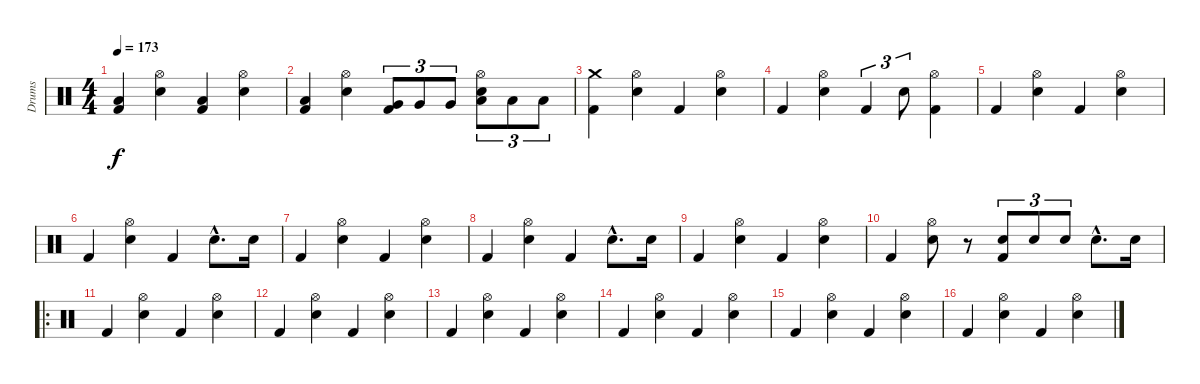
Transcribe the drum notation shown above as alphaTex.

\track ("Drums" "Drums") {instrument percussion}
\staff {score}
\articulation defaults
\ts (4 4)
\tempo 173
\clef neutral
\ks c
("Kick (hit) 2" "Low Floor Tom (hit)").4{dy f} ("Electric Snare (hit)" "Hi-Hat (open)").4 ("Kick (hit) 2" "Low Floor Tom (hit)").4 ("Electric Snare (hit)" "Hi-Hat (open)").4 |
("Kick (hit) 2" "Low Floor Tom (hit)").4 ("Electric Snare (hit)" "Hi-Hat (open)").4 ("Kick (hit) 2" "Very Low Tom (hit)").8{tu (3 2)} "Very Low Tom (hit)".8{tu (3 2)} "Very Low Tom (hit)".8{tu (3 2)} ("Low Floor Tom (hit)" "Electric Snare (hit)" "Hi-Hat (open)").8{tu (3 2)} "Low Floor Tom (hit)".8{tu (3 2)} "Low Floor Tom (hit)".8{tu (3 2)} |
("Kick (hit) 2" "Crash medium (hit)").4 ("Electric Snare (hit)" "Hi-Hat (open)").4 "Kick (hit) 2".4 ("Electric Snare (hit)" "Hi-Hat (open)").4 |
"Kick (hit) 2".4 ("Hi-Hat (open)" "Electric Snare (hit)").4 "Kick (hit) 2".4{tu (3 2)} "Electric Snare (hit)".8{tu (3 2)} ("Hi-Hat (open)" "Kick (hit) 2").4 |
"Kick (hit) 2".4 ("Electric Snare (hit)" "Hi-Hat (open)").4 "Kick (hit) 2".4 ("Electric Snare (hit)" "Hi-Hat (open)").4 |
"Kick (hit) 2".4 ("Electric Snare (hit)" "Hi-Hat (open)").4 "Kick (hit) 2".4 "Electric Snare (hit)"{hac}.8{d} "Electric Snare (hit)".16 |
"Kick (hit) 2".4 ("Electric Snare (hit)" "Hi-Hat (open)").4 "Kick (hit) 2".4 ("Electric Snare (hit)" "Hi-Hat (open)").4 |
"Kick (hit) 2".4 ("Electric Snare (hit)" "Hi-Hat (open)").4 "Kick (hit) 2".4 "Electric Snare (hit)"{hac}.8{d} "Electric Snare (hit)".16 |
"Kick (hit) 2".4 ("Electric Snare (hit)" "Hi-Hat (open)").4 "Kick (hit) 2".4 ("Electric Snare (hit)" "Hi-Hat (open)").4 |
"Kick (hit) 2".4 ("Hi-Hat (open)" "Electric Snare (hit)").8 r.8 ("Electric Snare (hit)" "Kick (hit) 2").8{tu (3 2)} "Electric Snare (hit)".8{tu (3 2)} "Electric Snare (hit)".8{tu (3 2)} "Electric Snare (hit)"{hac}.8{d} "Electric Snare (hit)".16 |
\ro "Kick (hit) 2".4
("Electric Snare (hit)" "Hi-Hat (open)").4 "Kick (hit) 2".4 ("Electric Snare (hit)" "Hi-Hat (open)").4 |
"Kick (hit) 2".4 ("Electric Snare (hit)" "Hi-Hat (open)").4 "Kick (hit) 2".4 ("Electric Snare (hit)" "Hi-Hat (open)").4 |
"Kick (hit) 2".4 ("Electric Snare (hit)" "Hi-Hat (open)").4 "Kick (hit) 2".4 ("Electric Snare (hit)" "Hi-Hat (open)").4 |
"Kick (hit) 2".4 ("Electric Snare (hit)" "Hi-Hat (open)").4 "Kick (hit) 2".4 ("Electric Snare (hit)" "Hi-Hat (open)").4 |
"Kick (hit) 2".4 ("Electric Snare (hit)" "Hi-Hat (open)").4 "Kick (hit) 2".4 ("Electric Snare (hit)" "Hi-Hat (open)").4 |
"Kick (hit) 2".4 ("Electric Snare (hit)" "Hi-Hat (open)").4 "Kick (hit) 2".4 ("Electric Snare (hit)" "Hi-Hat (open)").4
